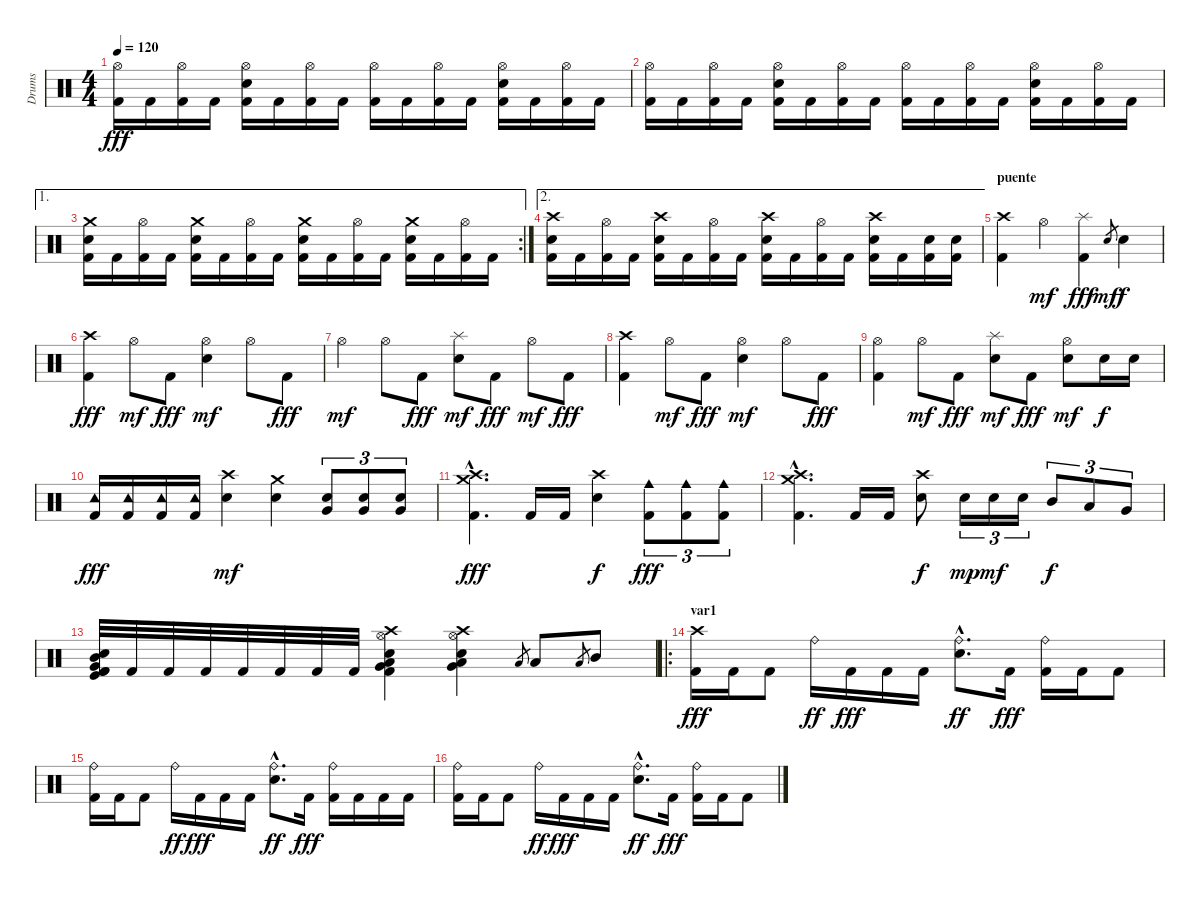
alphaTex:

\track ("Drums" "Drums") {instrument percussion}
\staff {score}
\articulation defaults
\ts (4 4)
\tempo 120
\clef neutral
\ks c
("Hi-Hat (open)" "Kick (hit) 2").16{dy fff} "Kick (hit) 2".16 ("Hi-Hat (open)" "Kick (hit) 2").16 "Kick (hit) 2".16 ("Hi-Hat (open)" "Electric Snare (hit)" "Kick (hit) 2").16 "Kick (hit) 2".16 ("Hi-Hat (open)" "Kick (hit) 2").16 "Kick (hit) 2".16 ("Hi-Hat (open)" "Kick (hit) 2").16 "Kick (hit) 2".16 ("Hi-Hat (open)" "Kick (hit) 2").16 "Kick (hit) 2".16 ("Hi-Hat (open)" "Electric Snare (hit)" "Kick (hit) 2").16 "Kick (hit) 2".16 ("Hi-Hat (open)" "Kick (hit) 2").16 "Kick (hit) 2".16 |
("Hi-Hat (open)" "Kick (hit) 2").16 "Kick (hit) 2".16 ("Hi-Hat (open)" "Kick (hit) 2").16 "Kick (hit) 2".16 ("Hi-Hat (open)" "Electric Snare (hit)" "Kick (hit) 2").16 "Kick (hit) 2".16 ("Hi-Hat (open)" "Kick (hit) 2").16 "Kick (hit) 2".16 ("Hi-Hat (open)" "Kick (hit) 2").16 "Kick (hit) 2".16 ("Hi-Hat (open)" "Kick (hit) 2").16 "Kick (hit) 2".16 ("Hi-Hat (open)" "Electric Snare (hit)" "Kick (hit) 2").16 "Kick (hit) 2".16 ("Hi-Hat (open)" "Kick (hit) 2").16 "Kick (hit) 2".16 |
\ae 1
\rc 2
("Crash medium (hit)" "Electric Snare (hit)" "Kick (hit) 2").16 "Kick (hit) 2".16 ("Hi-Hat (open)" "Kick (hit) 2").16 "Kick (hit) 2".16 ("Crash medium (hit)" "Electric Snare (hit)" "Kick (hit) 2").16 "Kick (hit) 2".16 ("Hi-Hat (open)" "Kick (hit) 2").16 "Kick (hit) 2".16 ("Crash medium (hit)" "Electric Snare (hit)" "Kick (hit) 2").16 "Kick (hit) 2".16 ("Hi-Hat (open)" "Kick (hit) 2").16 "Kick (hit) 2".16 ("Crash medium (hit)" "Electric Snare (hit)" "Kick (hit) 2").16 "Kick (hit) 2".16 ("Hi-Hat (open)" "Kick (hit) 2").16 "Kick (hit) 2".16 |
\ae 2
("Crash high (hit)" "Electric Snare (hit)" "Kick (hit) 2").16 "Kick (hit) 2".16 ("Hi-Hat (open)" "Kick (hit) 2").16 "Kick (hit) 2".16 ("Crash high (hit)" "Electric Snare (hit)" "Kick (hit) 2").16 "Kick (hit) 2".16 ("Hi-Hat (open)" "Kick (hit) 2").16 "Kick (hit) 2".16 ("Crash high (hit)" "Electric Snare (hit)" "Kick (hit) 2").16 "Kick (hit) 2".16 ("Hi-Hat (open)" "Kick (hit) 2").16 "Kick (hit) 2".16 ("Crash high (hit)" "Electric Snare (hit)" "Kick (hit) 2").16 "Kick (hit) 2".16 ("Electric Snare (hit)" "Kick (hit) 2").16 ("Electric Snare (hit)" "Kick (hit) 2").16 |
\section ("" "puente")
("Crash high (hit)" "Kick (hit) 2").4 "Hi-Hat (open)".4{dy mf} ("Splash (hit)" "Kick (hit) 2").4{dy fff} "Electric Snare (hit)".8{gr dy mf} "Electric Snare (hit)".4{dy f} |
("Crash high (hit)" "Kick (hit) 2").4{dy fff} "Hi-Hat (open)".8{dy mf} "Kick (hit) 2".8{dy fff} ("Hi-Hat (open)" "Electric Snare (hit)").4{dy mf} "Hi-Hat (open)".8 "Kick (hit) 2".8{dy fff} |
"Hi-Hat (open)".4{dy mf} "Hi-Hat (open)".8 "Kick (hit) 2".8{dy fff} ("Splash (hit)" "Electric Snare (hit)").8{dy mf} "Kick (hit) 2".8{dy fff} "Hi-Hat (open)".8{dy mf} "Kick (hit) 2".8{dy fff} |
("Crash high (hit)" "Kick (hit) 2").4 "Hi-Hat (open)".8{dy mf} "Kick (hit) 2".8{dy fff} ("Hi-Hat (open)" "Electric Snare (hit)").4{dy mf} "Hi-Hat (open)".8 "Kick (hit) 2".8{dy fff} |
("Hi-Hat (open)" "Kick (hit) 2").4 "Hi-Hat (open)".8{dy mf} "Kick (hit) 2".8{dy fff} ("Splash (hit)" "Electric Snare (hit)").8{dy mf} "Kick (hit) 2".8{dy fff} ("Hi-Hat (open)" "Electric Snare (hit)").8{dy mf} "Electric Snare (hit)".16{dy f} "Electric Snare (hit)".16 |
("Tambourine (hit)" "Kick (hit) 2").16{dy fff} ("Tambourine (hit)" "Kick (hit) 2").16 ("Tambourine (hit)" "Kick (hit) 2").16 ("Tambourine (hit)" "Kick (hit) 2").16 ("Crash high (hit)" "Electric Snare (hit)").4{dy mf} ("Crash medium (hit)" "Electric Snare (hit)").4 ("Electric Snare (hit)" "Very Low Tom (hit)").8{tu (3 2)} ("Electric Snare (hit)" "Very Low Tom (hit)").8{tu (3 2)} ("Electric Snare (hit)" "Very Low Tom (hit)").8{tu (3 2)} |
("Crash medium (hit)"{hac} "Crash high (hit)"{hac} "Kick (hit) 2"{hac}).4{d dy fff} "Kick (hit) 2".16 "Kick (hit) 2".16 ("Crash high (hit)" "Electric Snare (hit)").4{dy f} ("Cowbell medium (hit)" "Kick (hit) 2").8{tu (3 2) dy fff} ("Cowbell medium (hit)" "Kick (hit) 2").8{tu (3 2)} ("Cowbell medium (hit)" "Kick (hit) 2").8{tu (3 2)} |
("Crash medium (hit)"{hac} "Crash high (hit)"{hac} "Kick (hit) 2"{hac}).4{d} "Kick (hit) 2".16 "Kick (hit) 2".16 ("Crash high (hit)" "Electric Snare (hit)").8{dy f} "Electric Snare (hit)".16{tu (3 2) dy mp} "Electric Snare (hit)".16{tu (3 2) dy mf} "Electric Snare (hit)".16{tu (3 2)} "Mid Tom (hit)".8{tu (3 2) dy f} "Low Tom (hit)".8{tu (3 2)} "Very Low Tom (hit)".8{tu (3 2)} |
("Kick (hit) 2" "Kick (hit) 2" "Electric Snare (hit)" "Mid Tom (hit)" "Very Low Tom (hit)" "Kick (hit)").32 "Kick (hit) 2".32 "Kick (hit) 2".32 "Kick (hit) 2".32 "Kick (hit) 2".32 "Kick (hit) 2".32 "Kick (hit) 2".32 "Kick (hit) 2".32 ("Electric Snare (hit)" "Crash high (hit)" "Hi-Hat (open)" "Low Tom (hit)" "Very Low Tom (hit)" "Kick (hit) 2").4 ("Electric Snare (hit)" "Crash high (hit)" "Hi-Hat (open)" "Low Tom (hit)" "Very Low Tom (hit)").4 "Low Floor Tom (hit)".8{gr} "Low Tom (hit)".8 "Low Tom (hit)".8{gr} "Mid Tom (hit)".8 |
\ro
\section ("" "var1")
("Crash high (hit)" "Kick (hit) 2").16{dy fff} "Kick (hit) 2".16 "Kick (hit) 2".8 "Ride (bell)".16{dy ff} "Kick (hit) 2".16{dy fff} "Kick (hit) 2".16 "Kick (hit) 2".16 ("Ride (bell)"{hac} "Electric Snare (hit)"{hac}).8{d dy ff} "Kick (hit) 2".16{dy fff} ("Ride (bell)" "Kick (hit) 2").16 "Kick (hit) 2".16 "Kick (hit) 2".8 |
("Ride (bell)" "Kick (hit) 2").16 "Kick (hit) 2".16 "Kick (hit) 2".8 "Ride (bell)".16{dy ff} "Kick (hit) 2".16{dy fff} "Kick (hit) 2".16 "Kick (hit) 2".16 ("Ride (bell)"{hac} "Electric Snare (hit)"{hac}).8{d dy ff} "Kick (hit) 2".16{dy fff} ("Ride (bell)" "Kick (hit) 2").16 "Kick (hit) 2".16 "Kick (hit) 2".16 "Kick (hit) 2".16 |
("Ride (bell)" "Kick (hit) 2").16 "Kick (hit) 2".16 "Kick (hit) 2".8 "Ride (bell)".16{dy ff} "Kick (hit) 2".16{dy fff} "Kick (hit) 2".16 "Kick (hit) 2".16 ("Ride (bell)"{hac} "Electric Snare (hit)"{hac}).8{d dy ff} "Kick (hit) 2".16{dy fff} ("Ride (bell)" "Kick (hit) 2").16 "Kick (hit) 2".16 "Kick (hit) 2".8
